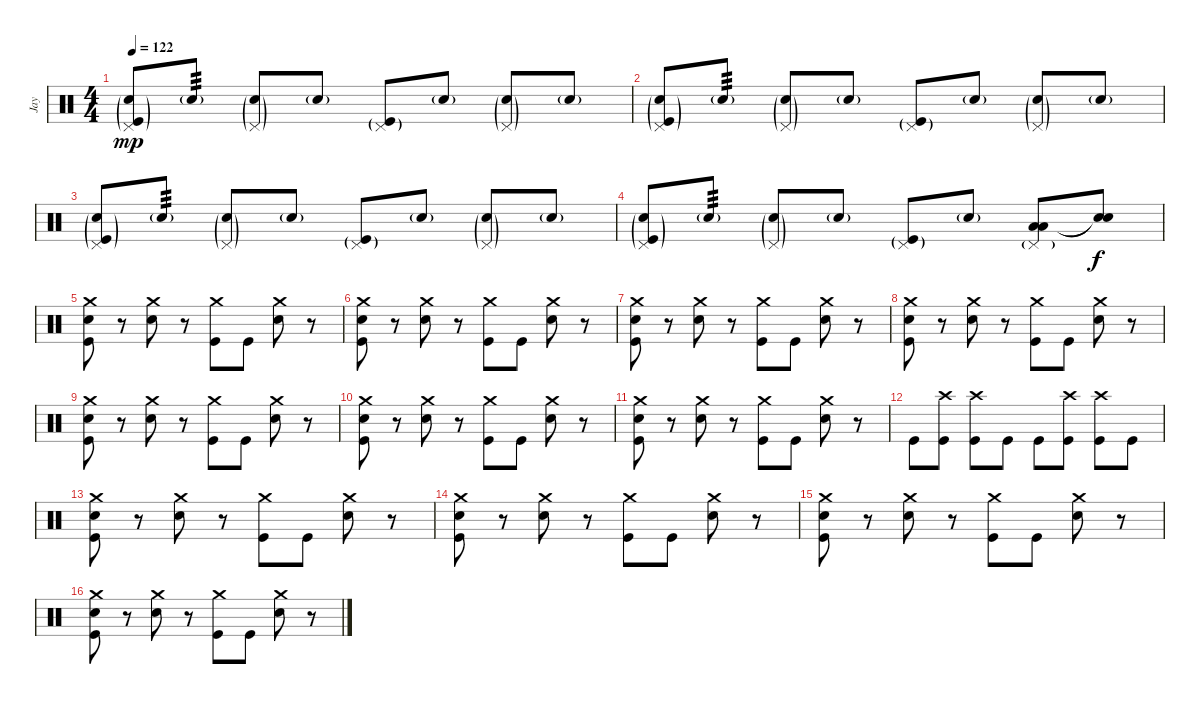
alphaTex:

\track ("Jay" "Jay") {instrument percussion}
\staff {score}
\articulation defaults
\ts (4 4)
\tempo 122
\clef neutral
\ks c
("Electric Snare (hit)"{g} "Pedal Hi-Hat (hit)"{g} "Kick (hit)"{g}).8{dy mp} "Electric Snare (hit)"{g}.8{tp 3} ("Electric Snare (hit)"{g} "Pedal Hi-Hat (hit)"{g}).8 "Electric Snare (hit)"{g}.8 ("Pedal Hi-Hat (hit)"{g} "Kick (hit)"{g}).8 "Electric Snare (hit)"{g}.8 ("Electric Snare (hit)"{g} "Pedal Hi-Hat (hit)"{g}).8 "Electric Snare (hit)"{g}.8 |
("Electric Snare (hit)"{g} "Pedal Hi-Hat (hit)"{g} "Kick (hit)"{g}).8 "Electric Snare (hit)"{g}.8{tp 3} ("Electric Snare (hit)"{g} "Pedal Hi-Hat (hit)"{g}).8 "Electric Snare (hit)"{g}.8 ("Pedal Hi-Hat (hit)"{g} "Kick (hit)"{g}).8 "Electric Snare (hit)"{g}.8 ("Electric Snare (hit)"{g} "Pedal Hi-Hat (hit)"{g}).8 "Electric Snare (hit)"{g}.8 |
("Electric Snare (hit)"{g} "Pedal Hi-Hat (hit)"{g} "Kick (hit)"{g}).8 "Electric Snare (hit)"{g}.8{tp 3} ("Electric Snare (hit)"{g} "Pedal Hi-Hat (hit)"{g}).8 "Electric Snare (hit)"{g}.8 ("Pedal Hi-Hat (hit)"{g} "Kick (hit)"{g}).8 "Electric Snare (hit)"{g}.8 ("Electric Snare (hit)"{g} "Pedal Hi-Hat (hit)"{g}).8 "Electric Snare (hit)"{g}.8 |
("Electric Snare (hit)"{g} "Pedal Hi-Hat (hit)"{g} "Kick (hit)"{g}).8 "Electric Snare (hit)"{g}.8{tp 3} ("Electric Snare (hit)"{g} "Pedal Hi-Hat (hit)"{g}).8 "Electric Snare (hit)"{g}.8 ("Pedal Hi-Hat (hit)"{g} "Kick (hit)"{g}).8 "Electric Snare (hit)"{g}.8 ("Low Tom (hit)" "Low Tom (hit)" "Pedal Hi-Hat (hit)"{g}).8 ("Electric Snare (hit)"{t} "Snare (hit)"{t}).8{dy f} |
("Crash medium (hit)" "Kick (hit)" "Snare (hit)").8 r.8 ("Crash medium (hit)" "Electric Snare (hit)").8 r.8 ("Crash medium (hit)" "Kick (hit)").8 "Kick (hit)".8 ("Crash medium (hit)" "Electric Snare (hit)").8 r.8 |
("Crash medium (hit)" "Kick (hit)" "Snare (hit)").8 r.8 ("Crash medium (hit)" "Electric Snare (hit)").8 r.8 ("Crash medium (hit)" "Kick (hit)").8 "Kick (hit)".8 ("Crash medium (hit)" "Electric Snare (hit)").8 r.8 |
("Crash medium (hit)" "Kick (hit)" "Snare (hit)").8 r.8 ("Crash medium (hit)" "Electric Snare (hit)").8 r.8 ("Crash medium (hit)" "Kick (hit)").8 "Kick (hit)".8 ("Crash medium (hit)" "Electric Snare (hit)").8 r.8 |
("Crash medium (hit)" "Kick (hit)" "Snare (hit)").8 r.8 ("Crash medium (hit)" "Electric Snare (hit)").8 r.8 ("Crash medium (hit)" "Kick (hit)").8 "Kick (hit)".8 ("Crash medium (hit)" "Electric Snare (hit)").8 r.8 |
("Crash medium (hit)" "Kick (hit)" "Snare (hit)").8 r.8 ("Crash medium (hit)" "Electric Snare (hit)").8 r.8 ("Crash medium (hit)" "Kick (hit)").8 "Kick (hit)".8 ("Crash medium (hit)" "Electric Snare (hit)").8 r.8 |
("Crash medium (hit)" "Kick (hit)" "Snare (hit)").8 r.8 ("Crash medium (hit)" "Electric Snare (hit)").8 r.8 ("Crash medium (hit)" "Kick (hit)").8 "Kick (hit)".8 ("Crash medium (hit)" "Electric Snare (hit)").8 r.8 |
("Crash medium (hit)" "Kick (hit)" "Snare (hit)").8 r.8 ("Crash medium (hit)" "Electric Snare (hit)").8 r.8 ("Crash medium (hit)" "Kick (hit)").8 "Kick (hit)".8 ("Crash medium (hit)" "Electric Snare (hit)").8 r.8 |
"Kick (hit)".8 ("Crash high (hit)" "Kick (hit)").8 ("Crash high (hit)" "Kick (hit)").8 "Kick (hit)".8 "Kick (hit)".8 ("Crash high (hit)" "Kick (hit)").8 ("Crash high (hit)" "Kick (hit)").8 "Kick (hit)".8 |
("Crash medium (hit)" "Kick (hit)" "Snare (hit)").8 r.8 ("Crash medium (hit)" "Electric Snare (hit)").8 r.8 ("Crash medium (hit)" "Kick (hit)").8 "Kick (hit)".8 ("Crash medium (hit)" "Electric Snare (hit)").8 r.8 |
("Crash medium (hit)" "Kick (hit)" "Snare (hit)").8 r.8 ("Crash medium (hit)" "Electric Snare (hit)").8 r.8 ("Crash medium (hit)" "Kick (hit)").8 "Kick (hit)".8 ("Crash medium (hit)" "Electric Snare (hit)").8 r.8 |
("Crash medium (hit)" "Kick (hit)" "Snare (hit)").8 r.8 ("Crash medium (hit)" "Electric Snare (hit)").8 r.8 ("Crash medium (hit)" "Kick (hit)").8 "Kick (hit)".8 ("Crash medium (hit)" "Electric Snare (hit)").8 r.8 |
("Crash medium (hit)" "Kick (hit)" "Snare (hit)").8 r.8 ("Crash medium (hit)" "Electric Snare (hit)").8 r.8 ("Crash medium (hit)" "Kick (hit)").8 "Kick (hit)".8 ("Crash medium (hit)" "Electric Snare (hit)").8 r.8
